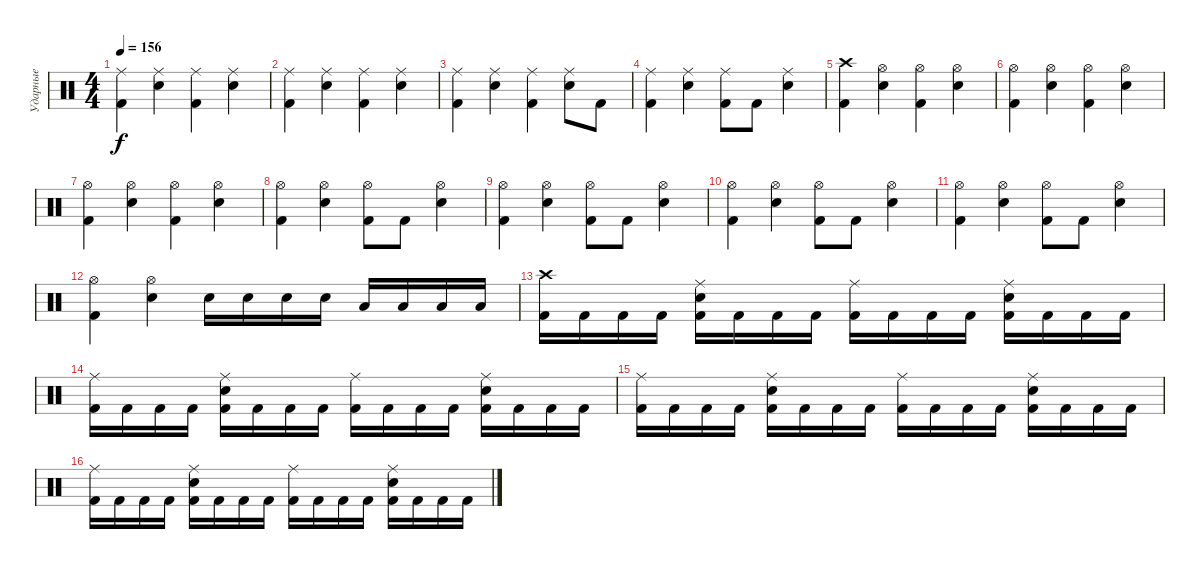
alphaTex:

\track ("Ударные" "Ударные") {instrument percussion}
\staff {score}
\articulation defaults
\ts (4 4)
\tempo 156
\clef neutral
\ks c
("Ride (middle)" "Kick (hit) 2").4{dy f} ("Ride (middle)" "Electric Snare (hit)").4 ("Ride (middle)" "Kick (hit) 2").4 ("Ride (middle)" "Electric Snare (hit)").4 |
("Ride (middle)" "Kick (hit) 2").4 ("Ride (middle)" "Electric Snare (hit)").4 ("Ride (middle)" "Kick (hit) 2").4 ("Ride (middle)" "Electric Snare (hit)").4 |
("Ride (middle)" "Kick (hit) 2").4 ("Ride (middle)" "Electric Snare (hit)").4 ("Ride (middle)" "Kick (hit) 2").4 ("Ride (middle)" "Electric Snare (hit)").8 "Kick (hit) 2".8 |
("Ride (middle)" "Kick (hit) 2").4 ("Ride (middle)" "Electric Snare (hit)").4 ("Ride (middle)" "Kick (hit) 2").8 "Kick (hit) 2".8 ("Ride (middle)" "Electric Snare (hit)").4 |
("Crash high (hit)" "Kick (hit) 2").4 ("Hi-Hat (open)" "Electric Snare (hit)").4 ("Hi-Hat (open)" "Kick (hit) 2").4 ("Hi-Hat (open)" "Electric Snare (hit)").4 |
("Hi-Hat (open)" "Kick (hit) 2").4 ("Hi-Hat (open)" "Electric Snare (hit)").4 ("Hi-Hat (open)" "Kick (hit) 2").4 ("Hi-Hat (open)" "Electric Snare (hit)").4 |
("Hi-Hat (open)" "Kick (hit) 2").4 ("Hi-Hat (open)" "Electric Snare (hit)").4 ("Hi-Hat (open)" "Kick (hit) 2").4 ("Hi-Hat (open)" "Electric Snare (hit)").4 |
("Hi-Hat (open)" "Kick (hit) 2").4 ("Hi-Hat (open)" "Electric Snare (hit)").4 ("Hi-Hat (open)" "Kick (hit) 2").8 "Kick (hit) 2".8 ("Hi-Hat (open)" "Electric Snare (hit)").4 |
("Hi-Hat (open)" "Kick (hit) 2").4 ("Hi-Hat (open)" "Electric Snare (hit)").4 ("Hi-Hat (open)" "Kick (hit) 2").8 "Kick (hit) 2".8 ("Hi-Hat (open)" "Electric Snare (hit)").4 |
("Hi-Hat (open)" "Kick (hit) 2").4 ("Hi-Hat (open)" "Electric Snare (hit)").4 ("Hi-Hat (open)" "Kick (hit) 2").8 "Kick (hit) 2".8 ("Hi-Hat (open)" "Electric Snare (hit)").4 |
("Hi-Hat (open)" "Kick (hit) 2").4 ("Hi-Hat (open)" "Electric Snare (hit)").4 ("Hi-Hat (open)" "Kick (hit) 2").8 "Kick (hit) 2".8 ("Hi-Hat (open)" "Electric Snare (hit)").4 |
("Hi-Hat (open)" "Kick (hit) 2").4 ("Hi-Hat (open)" "Electric Snare (hit)").4 "Electric Snare (hit)".16 "Electric Snare (hit)".16 "Electric Snare (hit)".16 "Electric Snare (hit)".16 "Low Floor Tom (hit)".16 "Low Floor Tom (hit)".16 "Low Floor Tom (hit)".16 "Low Floor Tom (hit)".16 |
("Crash high (hit)" "Kick (hit) 2").16 "Kick (hit) 2".16 "Kick (hit) 2".16 "Kick (hit) 2".16 ("Ride (middle)" "Electric Snare (hit)" "Kick (hit) 2").16 "Kick (hit) 2".16 "Kick (hit) 2".16 "Kick (hit) 2".16 ("Ride (middle)" "Kick (hit) 2").16 "Kick (hit) 2".16 "Kick (hit) 2".16 "Kick (hit) 2".16 ("Ride (middle)" "Electric Snare (hit)" "Kick (hit) 2").16 "Kick (hit) 2".16 "Kick (hit) 2".16 "Kick (hit) 2".16 |
("Ride (middle)" "Kick (hit) 2").16 "Kick (hit) 2".16 "Kick (hit) 2".16 "Kick (hit) 2".16 ("Ride (middle)" "Electric Snare (hit)" "Kick (hit) 2").16 "Kick (hit) 2".16 "Kick (hit) 2".16 "Kick (hit) 2".16 ("Ride (middle)" "Kick (hit) 2").16 "Kick (hit) 2".16 "Kick (hit) 2".16 "Kick (hit) 2".16 ("Ride (middle)" "Electric Snare (hit)" "Kick (hit) 2").16 "Kick (hit) 2".16 "Kick (hit) 2".16 "Kick (hit) 2".16 |
("Ride (middle)" "Kick (hit) 2").16 "Kick (hit) 2".16 "Kick (hit) 2".16 "Kick (hit) 2".16 ("Ride (middle)" "Electric Snare (hit)" "Kick (hit) 2").16 "Kick (hit) 2".16 "Kick (hit) 2".16 "Kick (hit) 2".16 ("Ride (middle)" "Kick (hit) 2").16 "Kick (hit) 2".16 "Kick (hit) 2".16 "Kick (hit) 2".16 ("Ride (middle)" "Electric Snare (hit)" "Kick (hit) 2").16 "Kick (hit) 2".16 "Kick (hit) 2".16 "Kick (hit) 2".16 |
("Ride (middle)" "Kick (hit) 2").16 "Kick (hit) 2".16 "Kick (hit) 2".16 "Kick (hit) 2".16 ("Ride (middle)" "Electric Snare (hit)" "Kick (hit) 2").16 "Kick (hit) 2".16 "Kick (hit) 2".16 "Kick (hit) 2".16 ("Ride (middle)" "Kick (hit) 2").16 "Kick (hit) 2".16 "Kick (hit) 2".16 "Kick (hit) 2".16 ("Ride (middle)" "Electric Snare (hit)" "Kick (hit) 2").16 "Kick (hit) 2".16 "Kick (hit) 2".16 "Kick (hit) 2".16
